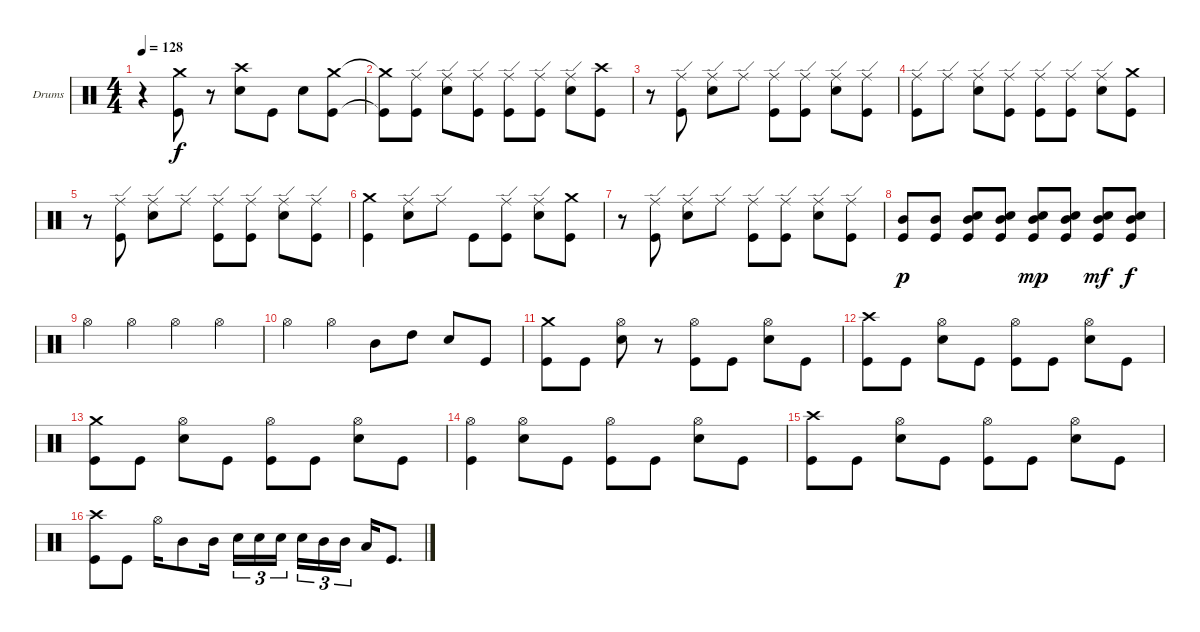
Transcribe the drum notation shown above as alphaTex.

\defaultSystemsLayout 4
\bracketExtendMode groupsimilarinstruments
\firstSystemTrackNameOrientation horizontal
\otherSystemsTrackNameOrientation horizontal
\track ("Drumkit" "Drums") {instrument percussion}
\staff {score}
\articulation defaults
\ts (4 4)
\tempo 128
\clef neutral
\ks c
r.4{dy f} ("Crash medium (hit)" "Kick (hit)").8 r.8 ("Crash high (hit)" "Snare (hit) 2").8 "Kick (hit)".8 "Snare (hit) 2".8 ("Crash medium (hit)" "Kick (hit)").8 |
("Crash medium (hit)"{t} "Kick (hit)"{t}).8 ("Ride (edge)" "Kick (hit)").8 ("Ride (edge)" "Snare (hit) 2").8 ("Ride (edge)" "Kick (hit)").8 ("Ride (edge)" "Kick (hit)").8 ("Ride (edge)" "Kick (hit)").8 ("Ride (edge)" "Snare (hit) 2").8 ("Crash high (hit)" "Kick (hit)").8 |
r.8 ("Ride (edge)" "Kick (hit)").8 ("Ride (edge)" "Snare (hit) 2").8 "Ride (edge)".8 ("Ride (edge)" "Kick (hit)").8 ("Ride (edge)" "Kick (hit)").8 ("Ride (edge)" "Snare (hit) 2").8 ("Ride (edge)" "Kick (hit)").8 |
("Ride (edge)" "Kick (hit)").8 "Ride (edge)".8 ("Ride (edge)" "Snare (hit) 2").8 ("Ride (edge)" "Kick (hit)").8 ("Ride (edge)" "Kick (hit)").8 ("Ride (edge)" "Kick (hit)").8 ("Ride (edge)" "Snare (hit) 2").8 ("Crash medium (hit)" "Kick (hit)").8 |
r.8 ("Ride (edge)" "Kick (hit)").8 ("Ride (edge)" "Snare (hit) 2").8 "Ride (edge)".8 ("Ride (edge)" "Kick (hit)").8 ("Ride (edge)" "Kick (hit)").8 ("Ride (edge)" "Snare (hit) 2").8 ("Ride (edge)" "Kick (hit)").8 |
("Crash medium (hit)" "Kick (hit)").4 ("Ride (edge)" "Snare (hit) 2").8 "Ride (edge)".8 "Kick (hit)".8 ("Ride (edge)" "Kick (hit)").8 ("Ride (edge)" "Snare (hit) 2").8 ("Crash medium (hit)" "Kick (hit)").8 |
r.8 ("Ride (edge)" "Kick (hit)").8 ("Ride (edge)" "Snare (hit) 2").8 "Ride (edge)".8 ("Ride (edge)" "Kick (hit)").8 ("Ride (edge)" "Kick (hit)").8 ("Ride (edge)" "Snare (hit) 2").8 ("Ride (edge)" "Kick (hit)").8 |
("Mid Tom (hit)" "Kick (hit)").8{dy p} ("Mid Tom (hit)" "Kick (hit)").8 ("Snare (hit) 2" "Mid Tom (hit)" "Kick (hit)").8 ("Snare (hit) 2" "Mid Tom (hit)" "Kick (hit)").8 ("Snare (hit) 2" "Mid Tom (hit)" "Kick (hit)").8{dy mp} ("Snare (hit) 2" "Mid Tom (hit)" "Kick (hit)").8 ("Snare (hit) 2" "Mid Tom (hit)" "Kick (hit)").8{dy mf} ("Snare (hit) 2" "Mid Tom (hit)" "Kick (hit)").8{dy f} |
"Hi-Hat (open)".4 "Hi-Hat (open)".4 "Hi-Hat (open)".4 "Hi-Hat (open)".4 |
"Hi-Hat (open)".4 "Hi-Hat (open)".4 "Mid Tom (hit)".8 "High Tom (hit)".8 "Snare (hit) 2".8 "Kick (hit)".8 |
("Crash medium (hit)" "Kick (hit)").8 "Kick (hit)".8 ("Hi-Hat (open)" "Snare (hit) 2").8 r.8 ("Hi-Hat (open)" "Kick (hit)").8 "Kick (hit)".8 ("Hi-Hat (open)" "Snare (hit) 2").8 "Kick (hit)".8 |
("Crash high (hit)" "Kick (hit)").8 "Kick (hit)".8 ("Hi-Hat (open)" "Snare (hit) 2").8 "Kick (hit)".8 ("Hi-Hat (open)" "Kick (hit)").8 "Kick (hit)".8 ("Hi-Hat (open)" "Snare (hit) 2").8 "Kick (hit)".8 |
("Crash medium (hit)" "Kick (hit)").8 "Kick (hit)".8 ("Hi-Hat (open)" "Snare (hit) 2").8 "Kick (hit)".8 ("Hi-Hat (open)" "Kick (hit)").8 "Kick (hit)".8 ("Hi-Hat (open)" "Snare (hit) 2").8 "Kick (hit)".8 |
("Hi-Hat (open)" "Kick (hit)").4 ("Hi-Hat (open)" "Snare (hit) 2").8 "Kick (hit)".8 ("Hi-Hat (open)" "Kick (hit)").8 "Kick (hit)".8 ("Hi-Hat (open)" "Snare (hit) 2").8 "Kick (hit)".8 |
("Crash high (hit)" "Kick (hit)").8 "Kick (hit)".8 ("Hi-Hat (open)" "Snare (hit) 2").8 "Kick (hit)".8 ("Hi-Hat (open)" "Kick (hit)").8 "Kick (hit)".8 ("Hi-Hat (open)" "Snare (hit) 2").8 "Kick (hit)".8 |
("Crash high (hit)" "Kick (hit)").8 "Kick (hit)".8 "Hi-Hat (open)".16 "Mid Tom (hit)".8 "Mid Tom (hit)".16 "Snare (hit) 2".16{tu (3 2)} "Snare (hit) 2".16{tu (3 2)} "Snare (hit) 2".16{tu (3 2)} "Snare (hit) 2".16{tu (3 2)} "Mid Tom (hit)".16{tu (3 2)} "Mid Tom (hit)".16{tu (3 2)} "Low Tom (hit)".16 "Kick (hit)".8{d}
